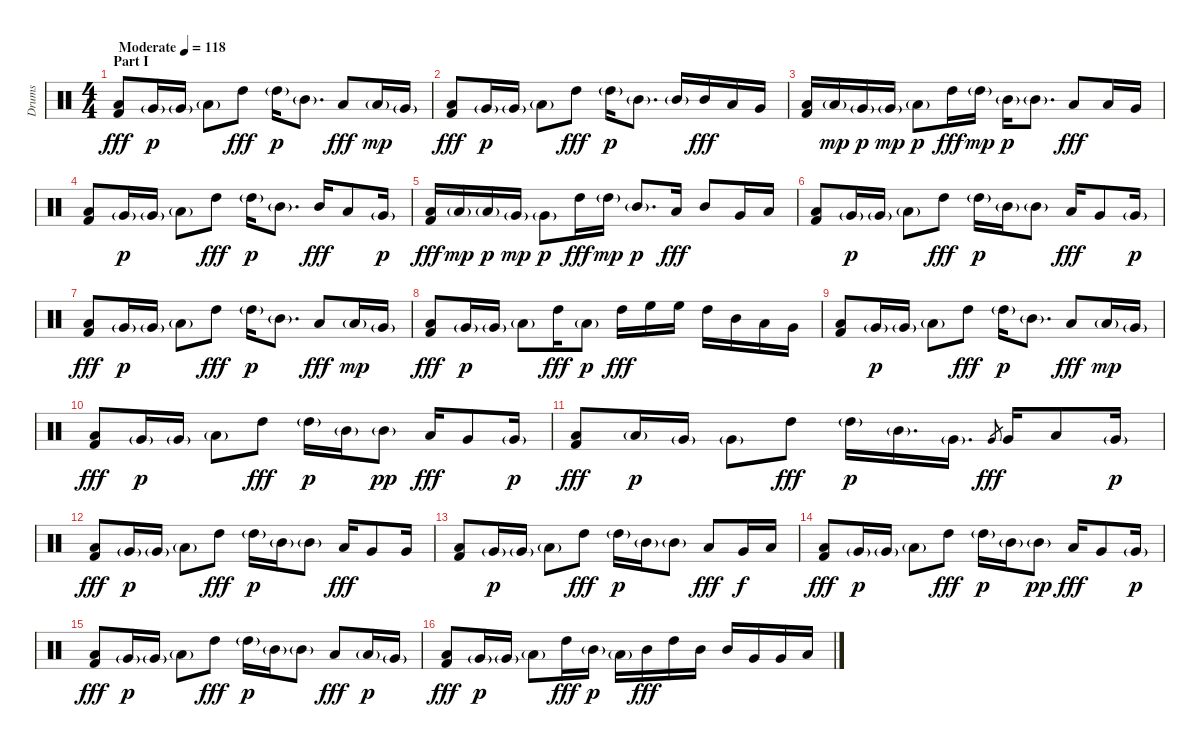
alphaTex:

\track ("Drums" "Drums") {instrument percussion}
\staff {score}
\articulation defaults
\ts (4 4)
\section ("" "Part I")
\tempo (118 "Moderate")
\clef neutral
\ks c
("Low Floor Tom (hit)" "Kick (hit) 2").8{dy fff} "Very Low Tom (hit)"{g}.16{dy p} "Very Low Tom (hit)"{g}.16 "Low Floor Tom (hit)"{g}.8 "High Tom (hit)".8{dy fff} "High Tom (hit)"{g}.16{dy p} "Mid Tom (hit)"{g}.8{d} "Low Tom (hit)".8{dy fff} "Low Tom (hit)"{g}.16{dy mp} "Very Low Tom (hit)"{g}.16 |
("Low Floor Tom (hit)" "Kick (hit) 2").8{dy fff} "Very Low Tom (hit)"{g}.16{dy p} "Very Low Tom (hit)"{g}.16 "Low Floor Tom (hit)"{g}.8 "High Tom (hit)".8{dy fff} "High Tom (hit)"{g}.16{dy p} "Mid Tom (hit)"{g}.8{d} "Mid Tom (hit)"{g}.16 "Mid Tom (hit)".16{dy fff} "Low Tom (hit)".16 "Very Low Tom (hit)".16 |
("Low Floor Tom (hit)" "Kick (hit) 2").16 "Low Tom (hit)"{g}.16{dy mp} "Very Low Tom (hit)"{g}.16{dy p} "Very Low Tom (hit)"{g}.16{dy mp} "Low Floor Tom (hit)"{g}.8{dy p} "High Tom (hit)".16{dy fff} "High Tom (hit)"{g}.16{dy mp} "Mid Tom (hit)"{g}.16{dy p} "Mid Tom (hit)"{g}.8{d} "Low Tom (hit)".8{dy fff} "Low Tom (hit)".16 "Very Low Tom (hit)".16 |
("Low Floor Tom (hit)" "Kick (hit) 2").8 "Very Low Tom (hit)"{g}.16{dy p} "Very Low Tom (hit)"{g}.16 "Low Floor Tom (hit)"{g}.8 "High Tom (hit)".8{dy fff} "High Tom (hit)"{g}.16{dy p} "Mid Tom (hit)"{g}.8{d} "Mid Tom (hit)".16{dy fff} "Low Tom (hit)".8 "Very Low Tom (hit)"{g}.16{dy p} |
("Low Floor Tom (hit)" "Kick (hit) 2").16{dy fff} "Low Floor Tom (hit)"{g}.16{dy mp} "Low Floor Tom (hit)"{g}.16{dy p} "Very Low Tom (hit)"{g}.16{dy mp} "Very Low Tom (hit)"{g}.8{dy p} "High Tom (hit)".16{dy fff} "High Tom (hit)"{g}.16{dy mp} "Mid Tom (hit)"{g}.8{d dy p} "Low Tom (hit)".16{dy fff} "Mid Tom (hit)".8 "Very Low Tom (hit)".16 "Low Tom (hit)".16 |
("Low Floor Tom (hit)" "Kick (hit) 2").8 "Very Low Tom (hit)"{g}.16{dy p} "Very Low Tom (hit)"{g}.16 "Low Floor Tom (hit)"{g}.8 "High Tom (hit)".8{dy fff} "High Tom (hit)"{g}.16{dy p} "Mid Tom (hit)"{g}.16 "Mid Tom (hit)"{g}.8 "Low Tom (hit)".16{dy fff} "Very Low Tom (hit)".8 "Very Low Tom (hit)"{g}.16{dy p} |
("Low Floor Tom (hit)" "Kick (hit) 2").8{dy fff} "Very Low Tom (hit)"{g}.16{dy p} "Very Low Tom (hit)"{g}.16 "Low Floor Tom (hit)"{g}.8 "High Tom (hit)".8{dy fff} "High Tom (hit)"{g}.16{dy p} "Mid Tom (hit)"{g}.8{d} "Low Tom (hit)".8{dy fff} "Low Tom (hit)"{g}.16{dy mp} "Very Low Tom (hit)"{g}.16 |
("Low Floor Tom (hit)" "Kick (hit) 2").8{dy fff} "Very Low Tom (hit)"{g}.16{dy p} "Very Low Tom (hit)"{g}.16 "Low Floor Tom (hit)"{g}.8 "High Tom (hit)".16{dy fff} "Low Tom (hit)"{g}.8{dy p} "High Tom (hit)".16{dy fff} "High Floor Tom (hit)".16 "High Floor Tom (hit)".16 "High Tom (hit)".16 "Mid Tom (hit)".16 "Low Tom (hit)".16 "Very Low Tom (hit)".16 |
("Low Floor Tom (hit)" "Kick (hit) 2").8 "Very Low Tom (hit)"{g}.16{dy p} "Very Low Tom (hit)"{g}.16 "Low Floor Tom (hit)"{g}.8 "High Tom (hit)".8{dy fff} "High Tom (hit)"{g}.16{dy p} "Mid Tom (hit)"{g}.8{d} "Low Tom (hit)".8{dy fff} "Low Tom (hit)"{g}.16{dy mp} "Very Low Tom (hit)"{g}.16 |
("Low Floor Tom (hit)" "Kick (hit) 2").8{dy fff} "Very Low Tom (hit)"{g}.16{dy p} "Very Low Tom (hit)"{g}.16 "Low Floor Tom (hit)"{g}.8 "High Tom (hit)".8{dy fff} "High Tom (hit)"{g}.16{dy p} "Mid Tom (hit)"{g}.16 "Mid Tom (hit)"{g}.8{dy pp} "Low Tom (hit)".16{dy fff} "Very Low Tom (hit)".8 "Very Low Tom (hit)"{g}.16{dy p} |
("Low Floor Tom (hit)" "Kick (hit) 2").8{dy fff} "Low Floor Tom (hit)"{g}.16{dy p} "Very Low Tom (hit)"{g}.16 "Very Low Tom (hit)"{g}.8 "High Tom (hit)".8{dy fff} "High Tom (hit)"{g}.16{dy p} "Mid Tom (hit)"{g}.16{d} "Very Low Tom (hit)"{g}.16{d} "Very Low Tom (hit)".8{gr dy fff} "Very Low Tom (hit)".16 "Low Tom (hit)".8 "Very Low Tom (hit)"{g}.16{dy p} |
("Low Floor Tom (hit)" "Kick (hit) 2").8{dy fff} "Very Low Tom (hit)"{g}.16{dy p} "Very Low Tom (hit)"{g}.16 "Low Floor Tom (hit)"{g}.8 "High Tom (hit)".8{dy fff} "High Tom (hit)"{g}.16{dy p} "Mid Tom (hit)"{g}.16 "Mid Tom (hit)"{g}.8 "Low Tom (hit)".16{dy fff} "Very Low Tom (hit)".8 "Very Low Tom (hit)".16 |
("Low Floor Tom (hit)" "Kick (hit) 2").8 "Very Low Tom (hit)"{g}.16{dy p} "Very Low Tom (hit)"{g}.16 "Low Floor Tom (hit)"{g}.8 "High Tom (hit)".8{dy fff} "High Tom (hit)"{g}.16{dy p} "Mid Tom (hit)"{g}.16 "Mid Tom (hit)"{g}.8 "Low Tom (hit)".8{dy fff} "Very Low Tom (hit)".16{dy f} "Low Tom (hit)".16 |
("Low Floor Tom (hit)" "Kick (hit) 2").8{dy fff} "Very Low Tom (hit)"{g}.16{dy p} "Very Low Tom (hit)"{g}.16 "Low Floor Tom (hit)"{g}.8 "High Tom (hit)".8{dy fff} "High Tom (hit)"{g}.16{dy p} "Mid Tom (hit)"{g}.16 "Mid Tom (hit)"{g}.8{dy pp} "Low Tom (hit)".16{dy fff} "Very Low Tom (hit)".8 "Very Low Tom (hit)"{g}.16{dy p} |
("Low Floor Tom (hit)" "Kick (hit) 2").8{dy fff} "Very Low Tom (hit)"{g}.16{dy p} "Very Low Tom (hit)"{g}.16 "Low Floor Tom (hit)"{g}.8 "High Tom (hit)".8{dy fff} "High Tom (hit)"{g}.16{dy p} "Mid Tom (hit)"{g}.16 "Mid Tom (hit)"{g}.8 "Low Tom (hit)".8{dy fff} "Low Tom (hit)"{g}.16{dy p} "Very Low Tom (hit)"{g}.16 |
("Low Floor Tom (hit)" "Kick (hit) 2").8{dy fff} "Very Low Tom (hit)"{g}.16{dy p} "Very Low Tom (hit)"{g}.16 "Low Floor Tom (hit)"{g}.8 "High Tom (hit)".16{dy fff} "Mid Tom (hit)"{g}.16{dy p} "Low Tom (hit)"{g}.16 "Mid Tom (hit)".16{dy fff} "High Tom (hit)".16 "Mid Tom (hit)".16 "Mid Tom (hit)".16 "Very Low Tom (hit)".16 "Very Low Tom (hit)".16 "Low Floor Tom (hit)".16
